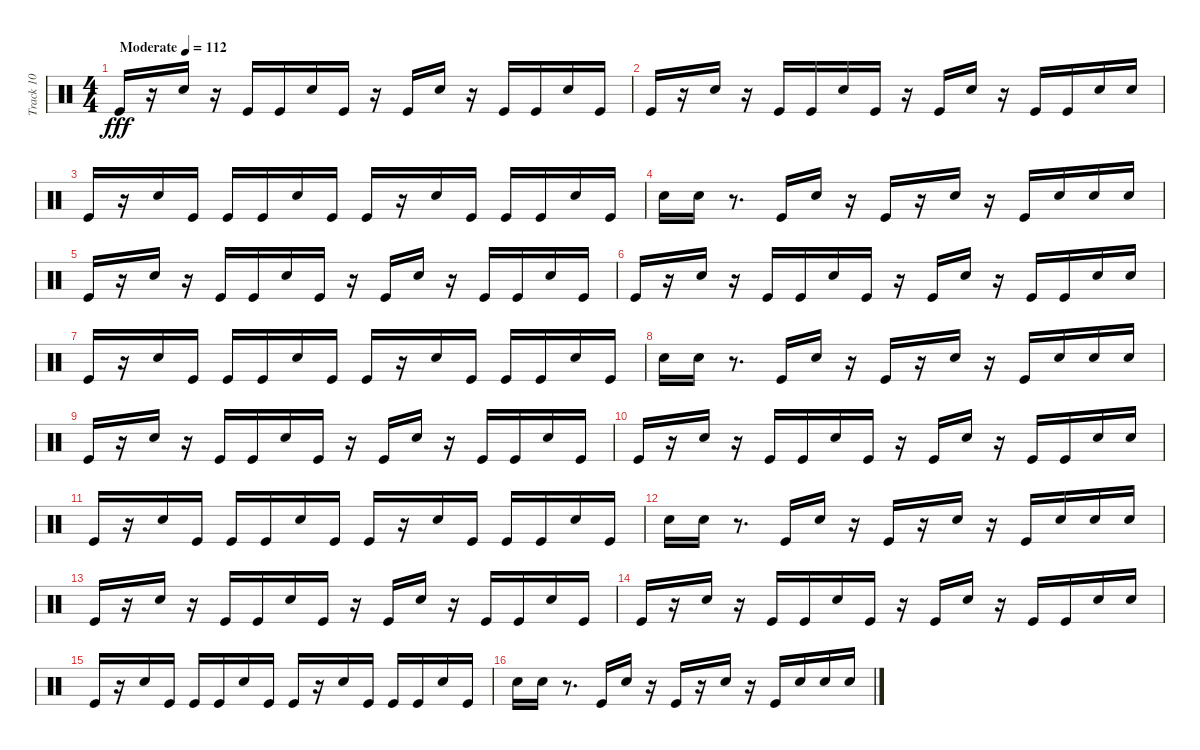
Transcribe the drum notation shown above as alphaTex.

\track ("Track 10" "Track 10") {instrument percussion}
\staff {score}
\articulation defaults
\ts (4 4)
\tempo (112 "Moderate")
\clef neutral
\ks c "Kick (hit)".16{dy fff}
r.16 "Snare (hit) 2".16 r.16 "Kick (hit)".16 "Kick (hit)".16 "Snare (hit) 2".16 "Kick (hit)".16 r.16 "Kick (hit)".16 "Snare (hit) 2".16 r.16 "Kick (hit)".16 "Kick (hit)".16 "Snare (hit) 2".16 "Kick (hit)".16 |
"Kick (hit)".16 r.16 "Snare (hit) 2".16 r.16 "Kick (hit)".16 "Kick (hit)".16 "Snare (hit) 2".16 "Kick (hit)".16 r.16 "Kick (hit)".16 "Snare (hit) 2".16 r.16 "Kick (hit)".16 "Kick (hit)".16 "Snare (hit) 2".16 "Snare (hit) 2".16 |
"Kick (hit)".16 r.16 "Snare (hit) 2".16 "Kick (hit)".16 "Kick (hit)".16 "Kick (hit)".16 "Snare (hit) 2".16 "Kick (hit)".16 "Kick (hit)".16 r.16 "Snare (hit) 2".16 "Kick (hit)".16 "Kick (hit)".16 "Kick (hit)".16 "Snare (hit) 2".16 "Kick (hit)".16 |
"Snare (hit) 2".16 "Snare (hit) 2".16 r.8{d} "Kick (hit)".16 "Snare (hit) 2".16 r.16 "Kick (hit)".16 r.16 "Snare (hit) 2".16 r.16 "Kick (hit)".16 "Snare (hit) 2".16 "Snare (hit) 2".16 "Snare (hit) 2".16 |
"Kick (hit)".16 r.16 "Snare (hit) 2".16 r.16 "Kick (hit)".16 "Kick (hit)".16 "Snare (hit) 2".16 "Kick (hit)".16 r.16 "Kick (hit)".16 "Snare (hit) 2".16 r.16 "Kick (hit)".16 "Kick (hit)".16 "Snare (hit) 2".16 "Kick (hit)".16 |
"Kick (hit)".16 r.16 "Snare (hit) 2".16 r.16 "Kick (hit)".16 "Kick (hit)".16 "Snare (hit) 2".16 "Kick (hit)".16 r.16 "Kick (hit)".16 "Snare (hit) 2".16 r.16 "Kick (hit)".16 "Kick (hit)".16 "Snare (hit) 2".16 "Snare (hit) 2".16 |
"Kick (hit)".16 r.16 "Snare (hit) 2".16 "Kick (hit)".16 "Kick (hit)".16 "Kick (hit)".16 "Snare (hit) 2".16 "Kick (hit)".16 "Kick (hit)".16 r.16 "Snare (hit) 2".16 "Kick (hit)".16 "Kick (hit)".16 "Kick (hit)".16 "Snare (hit) 2".16 "Kick (hit)".16 |
"Snare (hit) 2".16 "Snare (hit) 2".16 r.8{d} "Kick (hit)".16 "Snare (hit) 2".16 r.16 "Kick (hit)".16 r.16 "Snare (hit) 2".16 r.16 "Kick (hit)".16 "Snare (hit) 2".16 "Snare (hit) 2".16 "Snare (hit) 2".16 |
"Kick (hit)".16 r.16 "Snare (hit) 2".16 r.16 "Kick (hit)".16 "Kick (hit)".16 "Snare (hit) 2".16 "Kick (hit)".16 r.16 "Kick (hit)".16 "Snare (hit) 2".16 r.16 "Kick (hit)".16 "Kick (hit)".16 "Snare (hit) 2".16 "Kick (hit)".16 |
"Kick (hit)".16 r.16 "Snare (hit) 2".16 r.16 "Kick (hit)".16 "Kick (hit)".16 "Snare (hit) 2".16 "Kick (hit)".16 r.16 "Kick (hit)".16 "Snare (hit) 2".16 r.16 "Kick (hit)".16 "Kick (hit)".16 "Snare (hit) 2".16 "Snare (hit) 2".16 |
"Kick (hit)".16 r.16 "Snare (hit) 2".16 "Kick (hit)".16 "Kick (hit)".16 "Kick (hit)".16 "Snare (hit) 2".16 "Kick (hit)".16 "Kick (hit)".16 r.16 "Snare (hit) 2".16 "Kick (hit)".16 "Kick (hit)".16 "Kick (hit)".16 "Snare (hit) 2".16 "Kick (hit)".16 |
"Snare (hit) 2".16 "Snare (hit) 2".16 r.8{d} "Kick (hit)".16 "Snare (hit) 2".16 r.16 "Kick (hit)".16 r.16 "Snare (hit) 2".16 r.16 "Kick (hit)".16 "Snare (hit) 2".16 "Snare (hit) 2".16 "Snare (hit) 2".16 |
"Kick (hit)".16 r.16 "Snare (hit) 2".16 r.16 "Kick (hit)".16 "Kick (hit)".16 "Snare (hit) 2".16 "Kick (hit)".16 r.16 "Kick (hit)".16 "Snare (hit) 2".16 r.16 "Kick (hit)".16 "Kick (hit)".16 "Snare (hit) 2".16 "Kick (hit)".16 |
"Kick (hit)".16 r.16 "Snare (hit) 2".16 r.16 "Kick (hit)".16 "Kick (hit)".16 "Snare (hit) 2".16 "Kick (hit)".16 r.16 "Kick (hit)".16 "Snare (hit) 2".16 r.16 "Kick (hit)".16 "Kick (hit)".16 "Snare (hit) 2".16 "Snare (hit) 2".16 |
"Kick (hit)".16 r.16 "Snare (hit) 2".16 "Kick (hit)".16 "Kick (hit)".16 "Kick (hit)".16 "Snare (hit) 2".16 "Kick (hit)".16 "Kick (hit)".16 r.16 "Snare (hit) 2".16 "Kick (hit)".16 "Kick (hit)".16 "Kick (hit)".16 "Snare (hit) 2".16 "Kick (hit)".16 |
"Snare (hit) 2".16 "Snare (hit) 2".16 r.8{d} "Kick (hit)".16 "Snare (hit) 2".16 r.16 "Kick (hit)".16 r.16 "Snare (hit) 2".16 r.16 "Kick (hit)".16 "Snare (hit) 2".16 "Snare (hit) 2".16 "Snare (hit) 2".16
